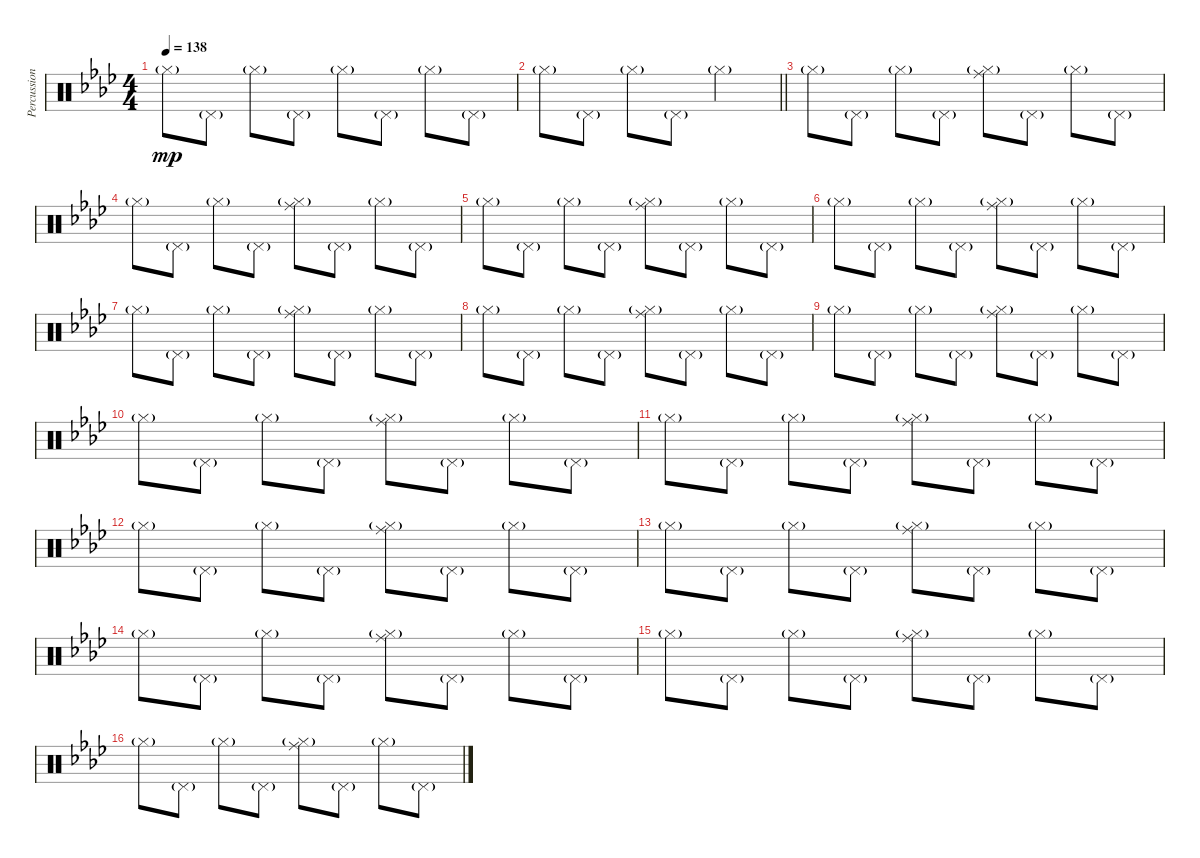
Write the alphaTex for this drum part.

\track ("Percussion" "Percussion") {instrument percussion}
\staff {score}
\articulation defaults
\ts (4 4)
\tempo 138
\clef neutral
\ks ab "Hi-Hat (closed)"{g}.8{dy mp} "Pedal Hi-Hat (hit)"{g}.8 "Hi-Hat (closed)"{g}.8 "Pedal Hi-Hat (hit)"{g}.8 "Hi-Hat (closed)"{g}.8 "Pedal Hi-Hat (hit)"{g}.8 "Hi-Hat (closed)"{g}.8 "Pedal Hi-Hat (hit)"{g}.8
|
\barLineRight lightlight "Hi-Hat (closed)"{g}.8 "Pedal Hi-Hat (hit)"{g}.8 "Hi-Hat (closed)"{g}.8 "Pedal Hi-Hat (hit)"{g}.8 "Hi-Hat (closed)"{g}.2
|
"Hi-Hat (closed)"{g}.8 "Pedal Hi-Hat (hit)"{g}.8 "Hi-Hat (closed)"{g}.8 "Pedal Hi-Hat (hit)"{g}.8 ("Ride (middle)" "Hi-Hat (closed)"{g}).8 "Pedal Hi-Hat (hit)"{g}.8 "Hi-Hat (closed)"{g}.8 "Pedal Hi-Hat (hit)"{g}.8 |
"Hi-Hat (closed)"{g}.8 "Pedal Hi-Hat (hit)"{g}.8 "Hi-Hat (closed)"{g}.8 "Pedal Hi-Hat (hit)"{g}.8 ("Ride (middle)" "Hi-Hat (closed)"{g}).8 "Pedal Hi-Hat (hit)"{g}.8 "Hi-Hat (closed)"{g}.8 "Pedal Hi-Hat (hit)"{g}.8 |
"Hi-Hat (closed)"{g}.8 "Pedal Hi-Hat (hit)"{g}.8 "Hi-Hat (closed)"{g}.8 "Pedal Hi-Hat (hit)"{g}.8 ("Ride (middle)" "Hi-Hat (closed)"{g}).8 "Pedal Hi-Hat (hit)"{g}.8 "Hi-Hat (closed)"{g}.8 "Pedal Hi-Hat (hit)"{g}.8 |
"Hi-Hat (closed)"{g}.8 "Pedal Hi-Hat (hit)"{g}.8 "Hi-Hat (closed)"{g}.8 "Pedal Hi-Hat (hit)"{g}.8 ("Ride (middle)" "Hi-Hat (closed)"{g}).8 "Pedal Hi-Hat (hit)"{g}.8 "Hi-Hat (closed)"{g}.8 "Pedal Hi-Hat (hit)"{g}.8 |
"Hi-Hat (closed)"{g}.8 "Pedal Hi-Hat (hit)"{g}.8 "Hi-Hat (closed)"{g}.8 "Pedal Hi-Hat (hit)"{g}.8 ("Ride (middle)" "Hi-Hat (closed)"{g}).8 "Pedal Hi-Hat (hit)"{g}.8 "Hi-Hat (closed)"{g}.8 "Pedal Hi-Hat (hit)"{g}.8 |
"Hi-Hat (closed)"{g}.8 "Pedal Hi-Hat (hit)"{g}.8 "Hi-Hat (closed)"{g}.8 "Pedal Hi-Hat (hit)"{g}.8 ("Ride (middle)" "Hi-Hat (closed)"{g}).8 "Pedal Hi-Hat (hit)"{g}.8 "Hi-Hat (closed)"{g}.8 "Pedal Hi-Hat (hit)"{g}.8 |
"Hi-Hat (closed)"{g}.8 "Pedal Hi-Hat (hit)"{g}.8 "Hi-Hat (closed)"{g}.8 "Pedal Hi-Hat (hit)"{g}.8 ("Ride (middle)" "Hi-Hat (closed)"{g}).8 "Pedal Hi-Hat (hit)"{g}.8 "Hi-Hat (closed)"{g}.8 "Pedal Hi-Hat (hit)"{g}.8 |
"Hi-Hat (closed)"{g}.8 "Pedal Hi-Hat (hit)"{g}.8 "Hi-Hat (closed)"{g}.8 "Pedal Hi-Hat (hit)"{g}.8 ("Ride (middle)" "Hi-Hat (closed)"{g}).8 "Pedal Hi-Hat (hit)"{g}.8 "Hi-Hat (closed)"{g}.8 "Pedal Hi-Hat (hit)"{g}.8 |
"Hi-Hat (closed)"{g}.8 "Pedal Hi-Hat (hit)"{g}.8 "Hi-Hat (closed)"{g}.8 "Pedal Hi-Hat (hit)"{g}.8 ("Ride (middle)" "Hi-Hat (closed)"{g}).8 "Pedal Hi-Hat (hit)"{g}.8 "Hi-Hat (closed)"{g}.8 "Pedal Hi-Hat (hit)"{g}.8 |
"Hi-Hat (closed)"{g}.8 "Pedal Hi-Hat (hit)"{g}.8 "Hi-Hat (closed)"{g}.8 "Pedal Hi-Hat (hit)"{g}.8 ("Ride (middle)" "Hi-Hat (closed)"{g}).8 "Pedal Hi-Hat (hit)"{g}.8 "Hi-Hat (closed)"{g}.8 "Pedal Hi-Hat (hit)"{g}.8 |
"Hi-Hat (closed)"{g}.8 "Pedal Hi-Hat (hit)"{g}.8 "Hi-Hat (closed)"{g}.8 "Pedal Hi-Hat (hit)"{g}.8 ("Ride (middle)" "Hi-Hat (closed)"{g}).8 "Pedal Hi-Hat (hit)"{g}.8 "Hi-Hat (closed)"{g}.8 "Pedal Hi-Hat (hit)"{g}.8 |
"Hi-Hat (closed)"{g}.8 "Pedal Hi-Hat (hit)"{g}.8 "Hi-Hat (closed)"{g}.8 "Pedal Hi-Hat (hit)"{g}.8 ("Ride (middle)" "Hi-Hat (closed)"{g}).8 "Pedal Hi-Hat (hit)"{g}.8 "Hi-Hat (closed)"{g}.8 "Pedal Hi-Hat (hit)"{g}.8 |
"Hi-Hat (closed)"{g}.8 "Pedal Hi-Hat (hit)"{g}.8 "Hi-Hat (closed)"{g}.8 "Pedal Hi-Hat (hit)"{g}.8 ("Ride (middle)" "Hi-Hat (closed)"{g}).8 "Pedal Hi-Hat (hit)"{g}.8 "Hi-Hat (closed)"{g}.8 "Pedal Hi-Hat (hit)"{g}.8 |
"Hi-Hat (closed)"{g}.8 "Pedal Hi-Hat (hit)"{g}.8 "Hi-Hat (closed)"{g}.8 "Pedal Hi-Hat (hit)"{g}.8 ("Ride (middle)" "Hi-Hat (closed)"{g}).8 "Pedal Hi-Hat (hit)"{g}.8 "Hi-Hat (closed)"{g}.8 "Pedal Hi-Hat (hit)"{g}.8
